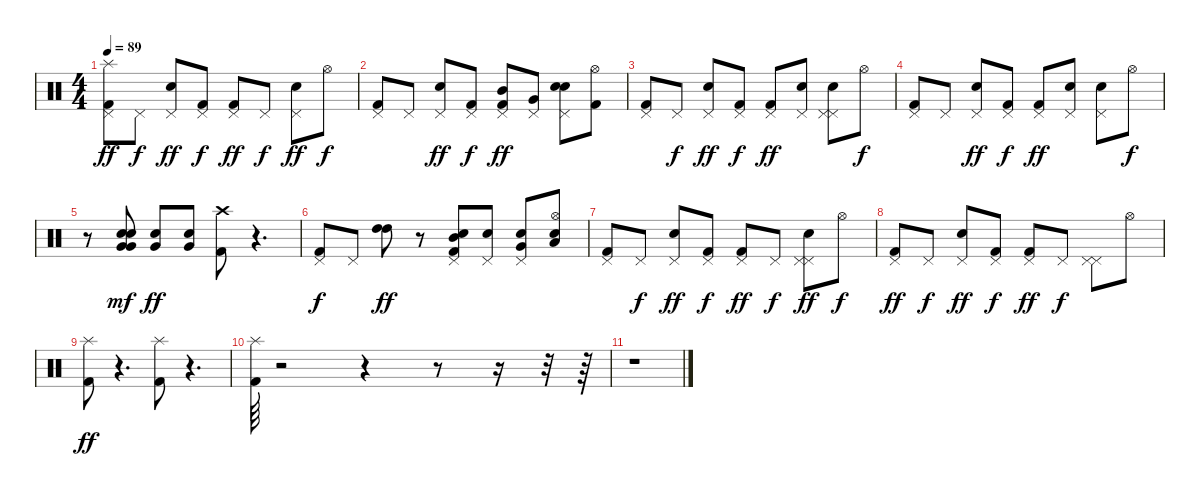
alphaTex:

\track "" {instrument percussion}
\staff {score}
\articulation defaults
\ts (4 4)
\tempo 89
\clef neutral
\ks c
("Splash (hit)" "Kick (hit) 2" "Pedal Hi-Hat (hit)").8{dy ff} "Pedal Hi-Hat (hit)".8{dy f} ("Pedal Hi-Hat (hit)" "Electric Snare (hit)").8{dy ff} ("Pedal Hi-Hat (hit)" "Kick (hit) 2").8{dy f} ("Kick (hit) 2" "Pedal Hi-Hat (hit)").8{dy ff} "Pedal Hi-Hat (hit)".8{dy f} ("Pedal Hi-Hat (hit)" "Electric Snare (hit)").8{dy ff} "Hi-Hat (open)".8{dy f} |
("Kick (hit) 2" "Pedal Hi-Hat (hit)").8 "Pedal Hi-Hat (hit)".8 ("Pedal Hi-Hat (hit)" "Electric Snare (hit)").8{dy ff} ("Pedal Hi-Hat (hit)" "Kick (hit) 2").8{dy f} ("Kick (hit) 2" "Pedal Hi-Hat (hit)" "Mid Tom (hit)").8{dy ff} ("Pedal Hi-Hat (hit)" "Very Low Tom (hit)").8 ("Pedal Hi-Hat (hit)" "Electric Snare (hit)" "Electric Snare (hit)").8 ("Kick (hit) 2" "Hi-Hat (open)").8 |
("Pedal Hi-Hat (hit)" "Kick (hit) 2").8 "Pedal Hi-Hat (hit)".8{dy f} ("Electric Snare (hit)" "Pedal Hi-Hat (hit)").8{dy ff} ("Pedal Hi-Hat (hit)" "Kick (hit) 2").8{dy f} ("Pedal Hi-Hat (hit)" "Kick (hit) 2").8{dy ff} ("Electric Snare (hit)" "Pedal Hi-Hat (hit)").8 ("Pedal Hi-Hat (hit)" "Electric Snare (hit)" "Pedal Hi-Hat (hit)").8 "Hi-Hat (open)".8{dy f} |
("Kick (hit) 2" "Pedal Hi-Hat (hit)").8 "Pedal Hi-Hat (hit)".8 ("Pedal Hi-Hat (hit)" "Electric Snare (hit)").8{dy ff} ("Pedal Hi-Hat (hit)" "Kick (hit) 2").8{dy f} ("Kick (hit) 2" "Pedal Hi-Hat (hit)").8{dy ff} ("Electric Snare (hit)" "Pedal Hi-Hat (hit)").8 ("Pedal Hi-Hat (hit)" "Electric Snare (hit)").8 "Hi-Hat (open)".8{dy f} |
r.8 ("Very Low Tom (hit)" "Electric Snare (hit)" "Electric Snare (hit)" "Very Low Tom (hit)").8{dy mf} ("Very Low Tom (hit)" "Electric Snare (hit)").8{dy ff} ("Very Low Tom (hit)" "Electric Snare (hit)").8 ("Kick (hit) 2" "Crash high (hit)").8 r.4{d} |
("Kick (hit) 2" "Pedal Hi-Hat (hit)").8{dy f} "Pedal Hi-Hat (hit)".8 ("High Tom (hit)" "High Tom (hit)").8{dy ff} r.8 ("Mid Tom (hit)" "Kick (hit) 2" "Pedal Hi-Hat (hit)" "Electric Snare (hit)").8 ("Pedal Hi-Hat (hit)" "Electric Snare (hit)").8 ("Pedal Hi-Hat (hit)" "Electric Snare (hit)" "Very Low Tom (hit)").8 ("Low Floor Tom (hit)" "Electric Snare (hit)" "Hi-Hat (open)").8 |
("Pedal Hi-Hat (hit)" "Kick (hit) 2").8 "Pedal Hi-Hat (hit)".8{dy f} ("Electric Snare (hit)" "Pedal Hi-Hat (hit)").8{dy ff} ("Pedal Hi-Hat (hit)" "Kick (hit) 2").8{dy f} ("Pedal Hi-Hat (hit)" "Kick (hit) 2").8{dy ff} "Pedal Hi-Hat (hit)".8{dy f} ("Pedal Hi-Hat (hit)" "Electric Snare (hit)" "Pedal Hi-Hat (hit)").8{dy ff} "Hi-Hat (open)".8{dy f} |
("Pedal Hi-Hat (hit)" "Kick (hit) 2").8{dy ff} "Pedal Hi-Hat (hit)".8{dy f} ("Electric Snare (hit)" "Pedal Hi-Hat (hit)").8{dy ff} ("Pedal Hi-Hat (hit)" "Kick (hit) 2").8{dy f} ("Pedal Hi-Hat (hit)" "Kick (hit) 2").8{dy ff} "Pedal Hi-Hat (hit)".8{dy f} ("Pedal Hi-Hat (hit)" "Pedal Hi-Hat (hit)").8 "Hi-Hat (open)".8 |
("Splash (hit)" "Kick (hit) 2").8{dy ff} r.4{d} ("Splash (hit)" "Kick (hit) 2").8 r.4{d} |
("Splash (hit)" "Kick (hit) 2").64{volume 11} r.2 r.4 r.8 r.16 r.32 r.64 |
r.1
